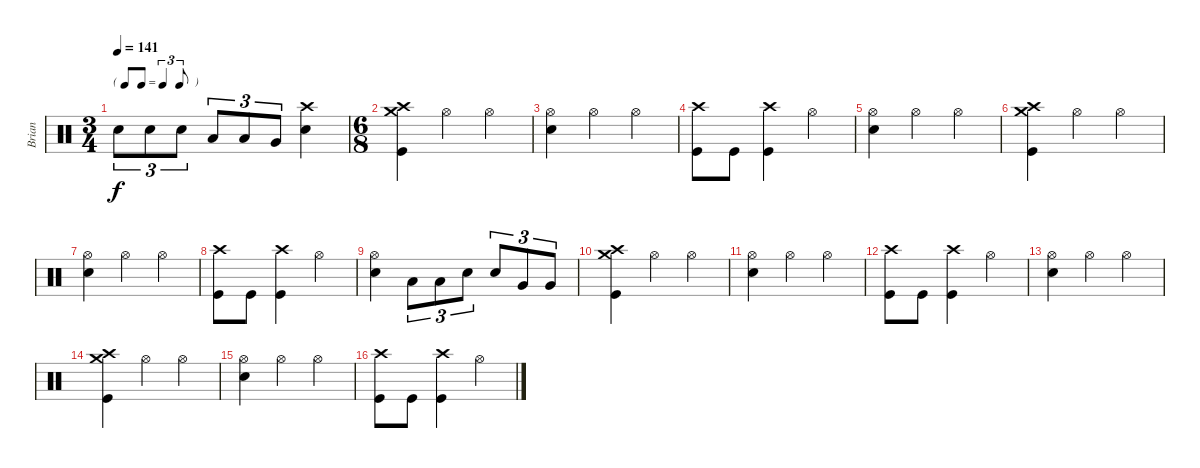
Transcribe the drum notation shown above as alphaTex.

\track ("Brian" "Brian") {instrument percussion}
\staff {score}
\articulation defaults
\ts (3 4)
\tf triplet8th
\tempo 141
\clef neutral
\ks c "Electric Snare (hit)".8{tu (3 2) dy f} "Electric Snare (hit)".8{tu (3 2)} "Electric Snare (hit)".8{tu (3 2)} "Low Tom (hit)".8{tu (3 2)} "Low Tom (hit)".8{tu (3 2)} "Very Low Tom (hit)".8{tu (3 2)}
("Crash high (hit)" "Electric Snare (hit)").4 |
\ts (6 8)
("Crash medium (hit)" "Crash high (hit)" "Kick (hit)").4 "Hi-Hat (open)".4 "Hi-Hat (open)".4 |
("Hi-Hat (open)" "Electric Snare (hit)").4 "Hi-Hat (open)".4 "Hi-Hat (open)".4 |
("Crash high (hit)" "Kick (hit)").8 "Kick (hit)".8 ("Crash high (hit)" "Kick (hit)").4 "Hi-Hat (open)".4 |
("Hi-Hat (open)" "Electric Snare (hit)").4 "Hi-Hat (open)".4 "Hi-Hat (open)".4 |
("Crash medium (hit)" "Crash high (hit)" "Kick (hit)").4 "Hi-Hat (open)".4 "Hi-Hat (open)".4 |
("Hi-Hat (open)" "Electric Snare (hit)").4 "Hi-Hat (open)".4 "Hi-Hat (open)".4 |
("Crash high (hit)" "Kick (hit)").8 "Kick (hit)".8 ("Crash high (hit)" "Kick (hit)").4 "Hi-Hat (open)".4 |
("Hi-Hat (open)" "Electric Snare (hit)").4 "Low Tom (hit)".8{tu (3 2)} "Low Tom (hit)".8{tu (3 2)} "Electric Snare (hit)".8{tu (3 2)} "Electric Snare (hit)".8{tu (3 2)} "Very Low Tom (hit)".8{tu (3 2)} "Very Low Tom (hit)".8{tu (3 2)} |
("Crash medium (hit)" "Crash high (hit)" "Kick (hit)").4 "Hi-Hat (open)".4 "Hi-Hat (open)".4 |
("Hi-Hat (open)" "Electric Snare (hit)").4 "Hi-Hat (open)".4 "Hi-Hat (open)".4 |
("Crash high (hit)" "Kick (hit)").8 "Kick (hit)".8 ("Crash high (hit)" "Kick (hit)").4 "Hi-Hat (open)".4 |
("Hi-Hat (open)" "Electric Snare (hit)").4 "Hi-Hat (open)".4 "Hi-Hat (open)".4 |
("Crash medium (hit)" "Crash high (hit)" "Kick (hit)").4 "Hi-Hat (open)".4 "Hi-Hat (open)".4 |
("Hi-Hat (open)" "Electric Snare (hit)").4 "Hi-Hat (open)".4 "Hi-Hat (open)".4 |
("Crash high (hit)" "Kick (hit)").8 "Kick (hit)".8 ("Crash high (hit)" "Kick (hit)").4 "Hi-Hat (open)".4
